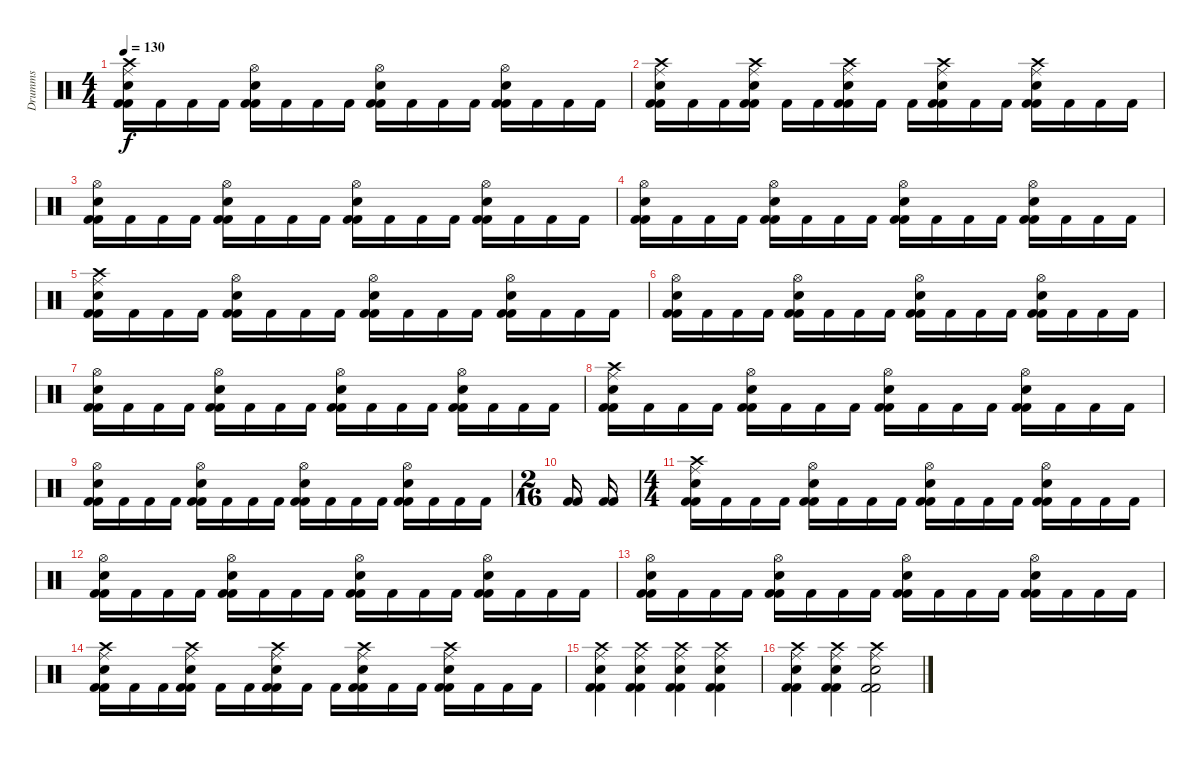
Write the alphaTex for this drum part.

\track ("Drumms" "Drumms") {instrument percussion}
\staff {score}
\articulation defaults
\ts (4 4)
\tempo 130
\clef neutral
\ks c
("Ride (middle)" "Snare (hit) 2" "Kick (hit) 2" "Kick (hit) 2" "Crash high (hit)").16{dy f} "Kick (hit) 2".16 "Kick (hit) 2".16 "Kick (hit) 2".16 ("Hi-Hat (open)" "Snare (hit) 2" "Kick (hit) 2" "Kick (hit) 2").16 "Kick (hit) 2".16 "Kick (hit) 2".16 "Kick (hit) 2".16 ("Hi-Hat (open)" "Snare (hit) 2" "Kick (hit) 2" "Kick (hit) 2").16 "Kick (hit) 2".16 "Kick (hit) 2".16 "Kick (hit) 2".16 ("Hi-Hat (open)" "Snare (hit) 2" "Kick (hit) 2" "Kick (hit) 2").16 "Kick (hit) 2".16 "Kick (hit) 2".16 "Kick (hit) 2".16 |
("Ride (middle)" "Snare (hit) 2" "Kick (hit) 2" "Kick (hit) 2" "Crash high (hit)").16 "Kick (hit) 2".16 "Kick (hit) 2".16 ("Ride (middle)" "Snare (hit) 2" "Kick (hit) 2" "Kick (hit) 2" "Crash high (hit)").16 "Kick (hit) 2".16 "Kick (hit) 2".16 ("Ride (middle)" "Snare (hit) 2" "Kick (hit) 2" "Kick (hit) 2" "Crash high (hit)").16 "Kick (hit) 2".16 "Kick (hit) 2".16 ("Ride (middle)" "Snare (hit) 2" "Kick (hit) 2" "Kick (hit) 2" "Crash high (hit)").16 "Kick (hit) 2".16 "Kick (hit) 2".16 ("Ride (middle)" "Snare (hit) 2" "Kick (hit) 2" "Kick (hit) 2" "Crash high (hit)").16 "Kick (hit) 2".16 "Kick (hit) 2".16 "Kick (hit) 2".16 |
("Hi-Hat (open)" "Snare (hit) 2" "Kick (hit) 2" "Kick (hit) 2").16 "Kick (hit) 2".16 "Kick (hit) 2".16 "Kick (hit) 2".16 ("Hi-Hat (open)" "Snare (hit) 2" "Kick (hit) 2" "Kick (hit) 2").16 "Kick (hit) 2".16 "Kick (hit) 2".16 "Kick (hit) 2".16 ("Hi-Hat (open)" "Snare (hit) 2" "Kick (hit) 2" "Kick (hit) 2").16 "Kick (hit) 2".16 "Kick (hit) 2".16 "Kick (hit) 2".16 ("Hi-Hat (open)" "Snare (hit) 2" "Kick (hit) 2" "Kick (hit) 2").16 "Kick (hit) 2".16 "Kick (hit) 2".16 "Kick (hit) 2".16 |
("Hi-Hat (open)" "Snare (hit) 2" "Kick (hit) 2" "Kick (hit) 2").16 "Kick (hit) 2".16 "Kick (hit) 2".16 "Kick (hit) 2".16 ("Hi-Hat (open)" "Snare (hit) 2" "Kick (hit) 2" "Kick (hit) 2").16 "Kick (hit) 2".16 "Kick (hit) 2".16 "Kick (hit) 2".16 ("Hi-Hat (open)" "Snare (hit) 2" "Kick (hit) 2" "Kick (hit) 2").16 "Kick (hit) 2".16 "Kick (hit) 2".16 "Kick (hit) 2".16 ("Hi-Hat (open)" "Snare (hit) 2" "Kick (hit) 2" "Kick (hit) 2").16 "Kick (hit) 2".16 "Kick (hit) 2".16 "Kick (hit) 2".16 |
("Ride (middle)" "Snare (hit) 2" "Kick (hit) 2" "Kick (hit) 2" "Crash high (hit)").16 "Kick (hit) 2".16 "Kick (hit) 2".16 "Kick (hit) 2".16 ("Hi-Hat (open)" "Snare (hit) 2" "Kick (hit) 2" "Kick (hit) 2").16 "Kick (hit) 2".16 "Kick (hit) 2".16 "Kick (hit) 2".16 ("Hi-Hat (open)" "Snare (hit) 2" "Kick (hit) 2" "Kick (hit) 2").16 "Kick (hit) 2".16 "Kick (hit) 2".16 "Kick (hit) 2".16 ("Hi-Hat (open)" "Snare (hit) 2" "Kick (hit) 2" "Kick (hit) 2").16 "Kick (hit) 2".16 "Kick (hit) 2".16 "Kick (hit) 2".16 |
("Hi-Hat (open)" "Snare (hit) 2" "Kick (hit) 2" "Kick (hit) 2").16 "Kick (hit) 2".16 "Kick (hit) 2".16 "Kick (hit) 2".16 ("Hi-Hat (open)" "Snare (hit) 2" "Kick (hit) 2" "Kick (hit) 2").16 "Kick (hit) 2".16 "Kick (hit) 2".16 "Kick (hit) 2".16 ("Hi-Hat (open)" "Snare (hit) 2" "Kick (hit) 2" "Kick (hit) 2").16 "Kick (hit) 2".16 "Kick (hit) 2".16 "Kick (hit) 2".16 ("Hi-Hat (open)" "Snare (hit) 2" "Kick (hit) 2" "Kick (hit) 2").16 "Kick (hit) 2".16 "Kick (hit) 2".16 "Kick (hit) 2".16 |
("Hi-Hat (open)" "Snare (hit) 2" "Kick (hit) 2" "Kick (hit) 2").16 "Kick (hit) 2".16 "Kick (hit) 2".16 "Kick (hit) 2".16 ("Hi-Hat (open)" "Snare (hit) 2" "Kick (hit) 2" "Kick (hit) 2").16 "Kick (hit) 2".16 "Kick (hit) 2".16 "Kick (hit) 2".16 ("Hi-Hat (open)" "Snare (hit) 2" "Kick (hit) 2" "Kick (hit) 2").16 "Kick (hit) 2".16 "Kick (hit) 2".16 "Kick (hit) 2".16 ("Hi-Hat (open)" "Snare (hit) 2" "Kick (hit) 2" "Kick (hit) 2").16 "Kick (hit) 2".16 "Kick (hit) 2".16 "Kick (hit) 2".16 |
("Ride (middle)" "Snare (hit) 2" "Kick (hit) 2" "Kick (hit) 2" "Crash high (hit)").16 "Kick (hit) 2".16 "Kick (hit) 2".16 "Kick (hit) 2".16 ("Hi-Hat (open)" "Snare (hit) 2" "Kick (hit) 2" "Kick (hit) 2").16 "Kick (hit) 2".16 "Kick (hit) 2".16 "Kick (hit) 2".16 ("Hi-Hat (open)" "Snare (hit) 2" "Kick (hit) 2" "Kick (hit) 2").16 "Kick (hit) 2".16 "Kick (hit) 2".16 "Kick (hit) 2".16 ("Hi-Hat (open)" "Snare (hit) 2" "Kick (hit) 2" "Kick (hit) 2").16 "Kick (hit) 2".16 "Kick (hit) 2".16 "Kick (hit) 2".16 |
("Hi-Hat (open)" "Snare (hit) 2" "Kick (hit) 2" "Kick (hit) 2").16 "Kick (hit) 2".16 "Kick (hit) 2".16 "Kick (hit) 2".16 ("Hi-Hat (open)" "Snare (hit) 2" "Kick (hit) 2" "Kick (hit) 2").16 "Kick (hit) 2".16 "Kick (hit) 2".16 "Kick (hit) 2".16 ("Hi-Hat (open)" "Snare (hit) 2" "Kick (hit) 2" "Kick (hit) 2").16 "Kick (hit) 2".16 "Kick (hit) 2".16 "Kick (hit) 2".16 ("Hi-Hat (open)" "Snare (hit) 2" "Kick (hit) 2" "Kick (hit) 2").16 "Kick (hit) 2".16 "Kick (hit) 2".16 "Kick (hit) 2".16 |
\ts (2 16)
("Kick (hit) 2" "Kick (hit) 2").16 ("Kick (hit) 2" "Kick (hit) 2").16 |
\ts (4 4)
("Ride (middle)" "Snare (hit) 2" "Kick (hit) 2" "Kick (hit) 2" "Crash high (hit)").16 "Kick (hit) 2".16 "Kick (hit) 2".16 "Kick (hit) 2".16 ("Hi-Hat (open)" "Snare (hit) 2" "Kick (hit) 2" "Kick (hit) 2").16 "Kick (hit) 2".16 "Kick (hit) 2".16 "Kick (hit) 2".16 ("Hi-Hat (open)" "Snare (hit) 2" "Kick (hit) 2" "Kick (hit) 2").16 "Kick (hit) 2".16 "Kick (hit) 2".16 "Kick (hit) 2".16 ("Hi-Hat (open)" "Snare (hit) 2" "Kick (hit) 2" "Kick (hit) 2").16 "Kick (hit) 2".16 "Kick (hit) 2".16 "Kick (hit) 2".16 |
("Hi-Hat (open)" "Snare (hit) 2" "Kick (hit) 2" "Kick (hit) 2").16 "Kick (hit) 2".16 "Kick (hit) 2".16 "Kick (hit) 2".16 ("Hi-Hat (open)" "Snare (hit) 2" "Kick (hit) 2" "Kick (hit) 2").16 "Kick (hit) 2".16 "Kick (hit) 2".16 "Kick (hit) 2".16 ("Hi-Hat (open)" "Snare (hit) 2" "Kick (hit) 2" "Kick (hit) 2").16 "Kick (hit) 2".16 "Kick (hit) 2".16 "Kick (hit) 2".16 ("Hi-Hat (open)" "Snare (hit) 2" "Kick (hit) 2" "Kick (hit) 2").16 "Kick (hit) 2".16 "Kick (hit) 2".16 "Kick (hit) 2".16 |
("Hi-Hat (open)" "Snare (hit) 2" "Kick (hit) 2" "Kick (hit) 2").16 "Kick (hit) 2".16 "Kick (hit) 2".16 "Kick (hit) 2".16 ("Hi-Hat (open)" "Snare (hit) 2" "Kick (hit) 2" "Kick (hit) 2").16 "Kick (hit) 2".16 "Kick (hit) 2".16 "Kick (hit) 2".16 ("Hi-Hat (open)" "Snare (hit) 2" "Kick (hit) 2" "Kick (hit) 2").16 "Kick (hit) 2".16 "Kick (hit) 2".16 "Kick (hit) 2".16 ("Hi-Hat (open)" "Snare (hit) 2" "Kick (hit) 2" "Kick (hit) 2").16 "Kick (hit) 2".16 "Kick (hit) 2".16 "Kick (hit) 2".16 |
("Ride (middle)" "Snare (hit) 2" "Kick (hit) 2" "Kick (hit) 2" "Crash high (hit)").16 "Kick (hit) 2".16 "Kick (hit) 2".16 ("Ride (middle)" "Snare (hit) 2" "Kick (hit) 2" "Kick (hit) 2" "Crash high (hit)").16 "Kick (hit) 2".16 "Kick (hit) 2".16 ("Ride (middle)" "Snare (hit) 2" "Kick (hit) 2" "Kick (hit) 2" "Crash high (hit)").16 "Kick (hit) 2".16 "Kick (hit) 2".16 ("Ride (middle)" "Snare (hit) 2" "Kick (hit) 2" "Kick (hit) 2" "Crash high (hit)").16 "Kick (hit) 2".16 "Kick (hit) 2".16 ("Ride (middle)" "Snare (hit) 2" "Kick (hit) 2" "Kick (hit) 2" "Crash high (hit)").16 "Kick (hit) 2".16 "Kick (hit) 2".16 "Kick (hit) 2".16 |
("Ride (middle)" "Snare (hit) 2" "Kick (hit) 2" "Kick (hit) 2" "Crash high (hit)").4 ("Ride (middle)" "Snare (hit) 2" "Kick (hit) 2" "Kick (hit) 2" "Crash high (hit)").4 ("Ride (middle)" "Snare (hit) 2" "Kick (hit) 2" "Kick (hit) 2" "Crash high (hit)").4 ("Ride (middle)" "Snare (hit) 2" "Kick (hit) 2" "Kick (hit) 2" "Crash high (hit)").4 |
("Ride (middle)" "Snare (hit) 2" "Kick (hit) 2" "Kick (hit) 2" "Crash high (hit)").4 ("Ride (middle)" "Snare (hit) 2" "Kick (hit) 2" "Kick (hit) 2" "Crash high (hit)").4 ("Ride (middle)" "Snare (hit) 2" "Kick (hit) 2" "Kick (hit) 2" "Crash high (hit)").2
